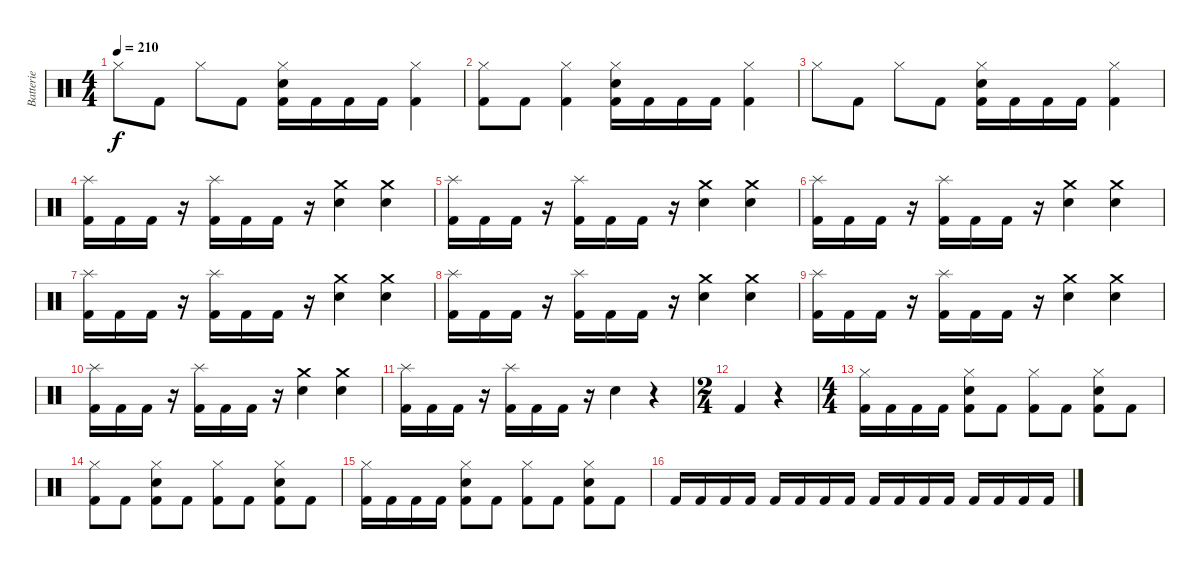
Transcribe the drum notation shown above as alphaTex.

\track ("Batterie" "Batterie") {instrument percussion}
\staff {score}
\articulation defaults
\ts (4 4)
\tempo 210
\clef neutral
\ks c "Hi-Hat (closed)".8{dy f} "Kick (hit) 2".8 "Hi-Hat (closed)".8 "Kick (hit) 2".8
("Hi-Hat (closed)" "Electric Snare (hit)" "Kick (hit) 2").16 "Kick (hit) 2".16 "Kick (hit) 2".16 "Kick (hit) 2".16 ("Hi-Hat (closed)" "Kick (hit) 2").4 |
("Hi-Hat (closed)" "Kick (hit) 2").8 "Kick (hit) 2".8 ("Hi-Hat (closed)" "Kick (hit) 2").4 ("Hi-Hat (closed)" "Electric Snare (hit)" "Kick (hit) 2").16 "Kick (hit) 2".16 "Kick (hit) 2".16 "Kick (hit) 2".16 ("Hi-Hat (closed)" "Kick (hit) 2").4 |
"Hi-Hat (closed)".8 "Kick (hit) 2".8 "Hi-Hat (closed)".8 "Kick (hit) 2".8 ("Hi-Hat (closed)" "Electric Snare (hit)" "Kick (hit) 2").16 "Kick (hit) 2".16 "Kick (hit) 2".16 "Kick (hit) 2".16 ("Hi-Hat (closed)" "Kick (hit) 2").4 |
("Splash (hit)" "Kick (hit) 2").16 "Kick (hit) 2".16 "Kick (hit) 2".16 r.16 ("Splash (hit)" "Kick (hit) 2").16 "Kick (hit) 2".16 "Kick (hit) 2".16 r.16 ("Crash medium (hit)" "Electric Snare (hit)").4 ("Crash medium (hit)" "Electric Snare (hit)").4 |
("Splash (hit)" "Kick (hit) 2").16 "Kick (hit) 2".16 "Kick (hit) 2".16 r.16 ("Splash (hit)" "Kick (hit) 2").16 "Kick (hit) 2".16 "Kick (hit) 2".16 r.16 ("Crash medium (hit)" "Electric Snare (hit)").4 ("Crash medium (hit)" "Electric Snare (hit)").4 |
("Splash (hit)" "Kick (hit) 2").16 "Kick (hit) 2".16 "Kick (hit) 2".16 r.16 ("Splash (hit)" "Kick (hit) 2").16 "Kick (hit) 2".16 "Kick (hit) 2".16 r.16 ("Crash medium (hit)" "Electric Snare (hit)").4 ("Crash medium (hit)" "Electric Snare (hit)").4 |
("Splash (hit)" "Kick (hit) 2").16 "Kick (hit) 2".16 "Kick (hit) 2".16 r.16 ("Splash (hit)" "Kick (hit) 2").16 "Kick (hit) 2".16 "Kick (hit) 2".16 r.16 ("Crash medium (hit)" "Electric Snare (hit)").4 ("Crash medium (hit)" "Electric Snare (hit)").4 |
("Splash (hit)" "Kick (hit) 2").16 "Kick (hit) 2".16 "Kick (hit) 2".16 r.16 ("Splash (hit)" "Kick (hit) 2").16 "Kick (hit) 2".16 "Kick (hit) 2".16 r.16 ("Crash medium (hit)" "Electric Snare (hit)").4 ("Crash medium (hit)" "Electric Snare (hit)").4 |
("Splash (hit)" "Kick (hit) 2").16 "Kick (hit) 2".16 "Kick (hit) 2".16 r.16 ("Splash (hit)" "Kick (hit) 2").16 "Kick (hit) 2".16 "Kick (hit) 2".16 r.16 ("Crash medium (hit)" "Electric Snare (hit)").4 ("Crash medium (hit)" "Electric Snare (hit)").4 |
("Splash (hit)" "Kick (hit) 2").16 "Kick (hit) 2".16 "Kick (hit) 2".16 r.16 ("Splash (hit)" "Kick (hit) 2").16 "Kick (hit) 2".16 "Kick (hit) 2".16 r.16 ("Crash medium (hit)" "Electric Snare (hit)").4 ("Crash medium (hit)" "Electric Snare (hit)").4 |
("Splash (hit)" "Kick (hit) 2").16 "Kick (hit) 2".16 "Kick (hit) 2".16 r.16 ("Splash (hit)" "Kick (hit) 2").16 "Kick (hit) 2".16 "Kick (hit) 2".16 r.16 "Electric Snare (hit)".4 r.4 |
\ts (2 4)
"Kick (hit) 2".4 r.4 |
\ts (4 4)
("Hi-Hat (closed)" "Kick (hit) 2").16 "Kick (hit) 2".16 "Kick (hit) 2".16 "Kick (hit) 2".16 ("Hi-Hat (closed)" "Electric Snare (hit)" "Kick (hit) 2").8 "Kick (hit) 2".8 ("Hi-Hat (closed)" "Kick (hit) 2").8 "Kick (hit) 2".8 ("Hi-Hat (closed)" "Electric Snare (hit)" "Kick (hit) 2").8 "Kick (hit) 2".8 |
("Hi-Hat (closed)" "Kick (hit) 2").8 "Kick (hit) 2".8 ("Hi-Hat (closed)" "Electric Snare (hit)" "Kick (hit) 2").8 "Kick (hit) 2".8 ("Hi-Hat (closed)" "Kick (hit) 2").8 "Kick (hit) 2".8 ("Hi-Hat (closed)" "Electric Snare (hit)" "Kick (hit) 2").8 "Kick (hit) 2".8 |
("Hi-Hat (closed)" "Kick (hit) 2").16 "Kick (hit) 2".16 "Kick (hit) 2".16 "Kick (hit) 2".16 ("Hi-Hat (closed)" "Electric Snare (hit)" "Kick (hit) 2").8 "Kick (hit) 2".8 ("Hi-Hat (closed)" "Kick (hit) 2").8 "Kick (hit) 2".8 ("Hi-Hat (closed)" "Electric Snare (hit)" "Kick (hit) 2").8 "Kick (hit) 2".8 |
"Kick (hit) 2".16 "Kick (hit) 2".16 "Kick (hit) 2".16 "Kick (hit) 2".16 "Kick (hit) 2".16 "Kick (hit) 2".16 "Kick (hit) 2".16 "Kick (hit) 2".16 "Kick (hit) 2".16 "Kick (hit) 2".16 "Kick (hit) 2".16 "Kick (hit) 2".16 "Kick (hit) 2".16 "Kick (hit) 2".16 "Kick (hit) 2".16 "Kick (hit) 2".16
